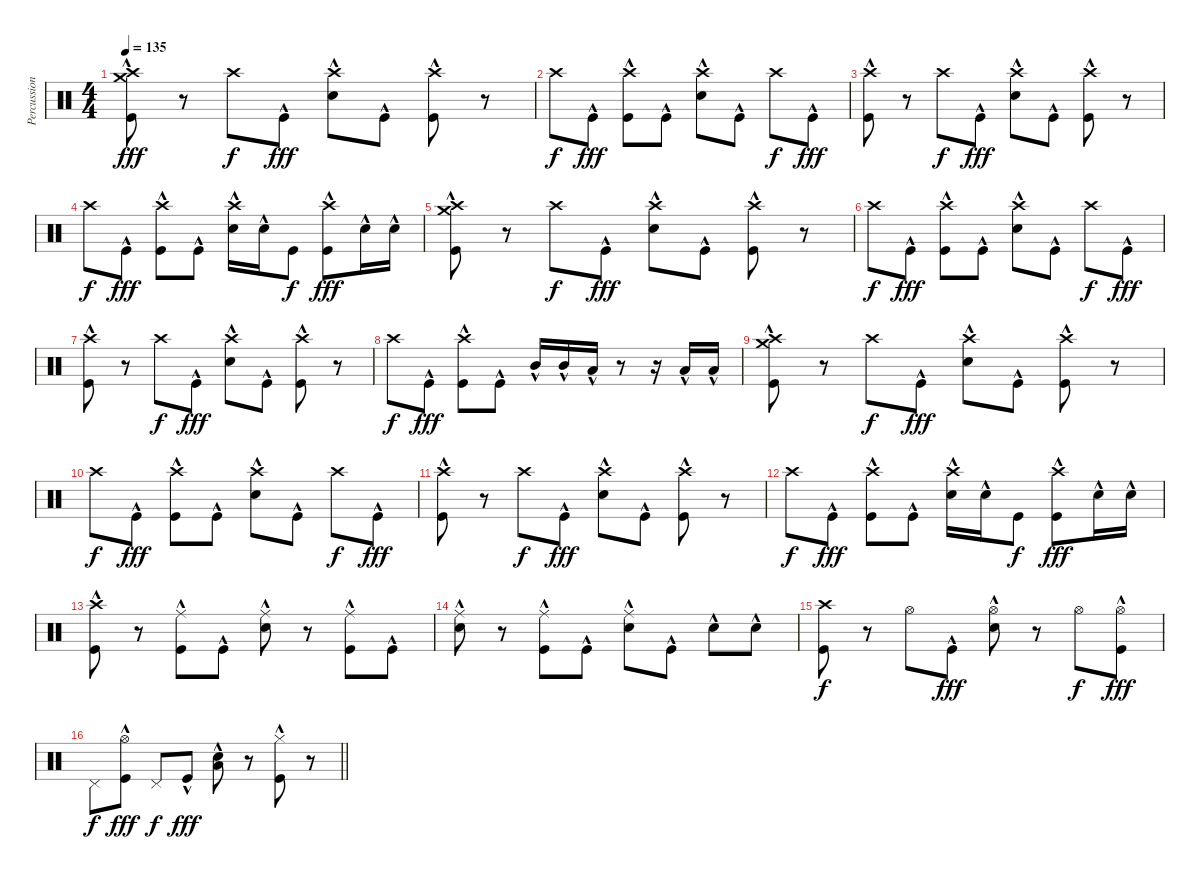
\track ("Percussion" "Percussion") {instrument percussion}
\staff {score}
\articulation defaults
\ts (4 4)
\tempo 135
\clef neutral
\ks c
("Crash medium (hit)" "Crash high (hit)" "Kick (hit)"{hac}).8{dy fff} r.8 "Crash high (hit)".8{dy f} "Kick (hit)"{hac}.8{dy fff} ("Crash high (hit)" "Snare (hit) 2"{hac}).8 "Kick (hit)"{hac}.8 ("Crash high (hit)" "Kick (hit)"{hac}).8 r.8 |
"Crash high (hit)".8{dy f} "Kick (hit)"{hac}.8{dy fff} ("Crash high (hit)" "Kick (hit)"{hac}).8 "Kick (hit)"{hac}.8 ("Crash high (hit)" "Snare (hit) 2"{hac}).8 "Kick (hit)"{hac}.8 "Crash high (hit)".8{dy f} "Kick (hit)"{hac}.8{dy fff} |
("Crash high (hit)" "Kick (hit)"{hac}).8 r.8 "Crash high (hit)".8{dy f} "Kick (hit)"{hac}.8{dy fff} ("Crash high (hit)" "Snare (hit) 2"{hac}).8 "Kick (hit)"{hac}.8 ("Crash high (hit)" "Kick (hit)"{hac}).8 r.8 |
"Crash high (hit)".8{dy f} "Kick (hit)"{hac}.8{dy fff} ("Crash high (hit)" "Kick (hit)"{hac}).8 "Kick (hit)"{hac}.8 ("Crash high (hit)" "Snare (hit) 2"{hac}).16 "Snare (hit) 2"{hac}.16 "Kick (hit)".8{dy f} ("Crash high (hit)" "Kick (hit)"{hac}).8{dy fff} "Snare (hit) 2"{hac}.16 "Snare (hit) 2"{hac}.16 |
("Crash medium (hit)" "Crash high (hit)" "Kick (hit)"{hac}).8 r.8 "Crash high (hit)".8{dy f} "Kick (hit)"{hac}.8{dy fff} ("Crash high (hit)" "Snare (hit) 2"{hac}).8 "Kick (hit)"{hac}.8 ("Crash high (hit)" "Kick (hit)"{hac}).8 r.8 |
"Crash high (hit)".8{dy f} "Kick (hit)"{hac}.8{dy fff} ("Crash high (hit)" "Kick (hit)"{hac}).8 "Kick (hit)"{hac}.8 ("Crash high (hit)" "Snare (hit) 2"{hac}).8 "Kick (hit)"{hac}.8 "Crash high (hit)".8{dy f} "Kick (hit)"{hac}.8{dy fff} |
("Crash high (hit)" "Kick (hit)"{hac}).8 r.8 "Crash high (hit)".8{dy f} "Kick (hit)"{hac}.8{dy fff} ("Crash high (hit)" "Snare (hit) 2"{hac}).8 "Kick (hit)"{hac}.8 ("Crash high (hit)" "Kick (hit)"{hac}).8 r.8 |
"Crash high (hit)".8{dy f} "Kick (hit)"{hac}.8{dy fff} ("Crash high (hit)" "Kick (hit)"{hac}).8 "Kick (hit)"{hac}.8 "Mid Tom (hit)"{hac}.16 "Mid Tom (hit)"{hac}.16 "Low Tom (hit)"{hac}.16 r.8 r.16 "Low Tom (hit)"{hac}.16 "Low Tom (hit)"{hac}.16 |
("Crash medium (hit)" "Crash high (hit)" "Kick (hit)"{hac}).8 r.8 "Crash high (hit)".8{dy f} "Kick (hit)"{hac}.8{dy fff} ("Crash high (hit)" "Snare (hit) 2"{hac}).8 "Kick (hit)"{hac}.8 ("Crash high (hit)" "Kick (hit)"{hac}).8 r.8 |
"Crash high (hit)".8{dy f} "Kick (hit)"{hac}.8{dy fff} ("Crash high (hit)" "Kick (hit)"{hac}).8 "Kick (hit)"{hac}.8 ("Crash high (hit)" "Snare (hit) 2"{hac}).8 "Kick (hit)"{hac}.8 "Crash high (hit)".8{dy f} "Kick (hit)"{hac}.8{dy fff} |
("Crash high (hit)" "Kick (hit)"{hac}).8 r.8 "Crash high (hit)".8{dy f} "Kick (hit)"{hac}.8{dy fff} ("Crash high (hit)" "Snare (hit) 2"{hac}).8 "Kick (hit)"{hac}.8 ("Crash high (hit)" "Kick (hit)"{hac}).8 r.8 |
"Crash high (hit)".8{dy f} "Kick (hit)"{hac}.8{dy fff} ("Crash high (hit)" "Kick (hit)"{hac}).8 "Kick (hit)"{hac}.8 ("Crash high (hit)" "Snare (hit) 2"{hac}).16 "Snare (hit) 2"{hac}.16 "Kick (hit)".8{dy f} ("Crash high (hit)" "Kick (hit)"{hac}).8{dy fff} "Snare (hit) 2"{hac}.16 "Snare (hit) 2"{hac}.16 |
("Crash high (hit)" "Kick (hit)"{hac}).8 r.8 ("Ride (middle)" "Kick (hit)"{hac}).8 "Kick (hit)"{hac}.8 ("Ride (middle)" "Snare (hit) 2"{hac}).8 r.8 ("Ride (middle)" "Kick (hit)"{hac}).8 "Kick (hit)"{hac}.8 |
("Ride (middle)" "Snare (hit) 2"{hac}).8 r.8 ("Ride (middle)" "Kick (hit)"{hac}).8 "Kick (hit)"{hac}.8 ("Ride (middle)" "Snare (hit) 2"{hac}).8 "Kick (hit)"{hac}.8 "Snare (hit) 2"{hac}.8 "Snare (hit) 2"{hac}.8 |
("Crash high (hit)" "Kick (hit)").8{dy f} r.8 "Hi-Hat (open)".8 "Kick (hit)"{hac}.8{dy fff} ("Hi-Hat (open)" "Snare (hit) 2"{hac}).8 r.8 "Hi-Hat (open)".8{dy f} ("Hi-Hat (open)" "Kick (hit)"{hac}).8{dy fff} |
\barLineRight lightlight "Pedal Hi-Hat (hit)".8{dy f}
("Hi-Hat (open)" "Kick (hit)"{hac}).8{dy fff} "Pedal Hi-Hat (hit)".8{dy f} "Kick (hit)"{hac}.8{dy fff} ("Low Floor Tom (hit)"{hac} "Snare (hit) 2"{hac}).8 r.8 ("Hi-Hat (closed)" "Kick (hit)"{hac}).8 r.8
